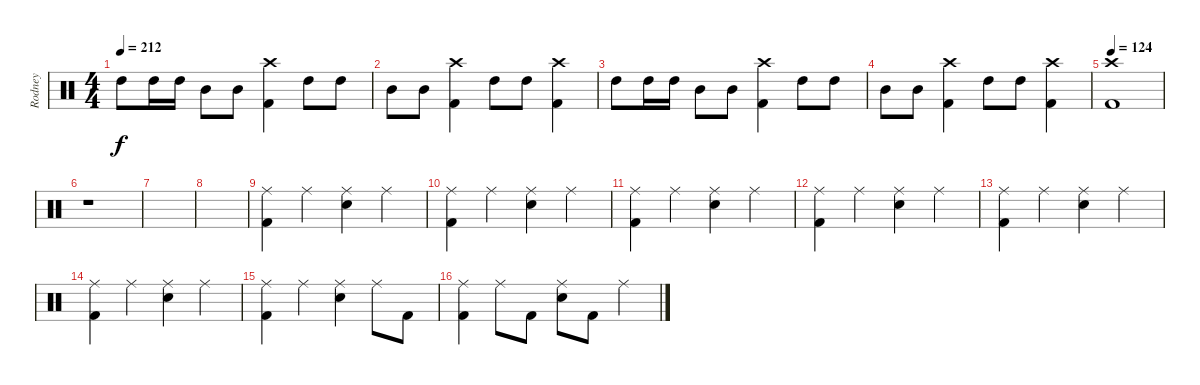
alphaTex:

\track ("Rodney" "Rodney") {instrument percussion}
\staff {score}
\articulation defaults
\ts (4 4)
\tempo 212
\clef neutral
\ks c "High Tom (hit)".8{dy f} "High Tom (hit)".16 "High Tom (hit)".16 "Mid Tom (hit)".8 "Mid Tom (hit)".8
("Crash high (hit)" "Kick (hit) 2").4 "High Tom (hit)".8 "High Tom (hit)".8 |
"Mid Tom (hit)".8 "Mid Tom (hit)".8 ("Crash high (hit)" "Kick (hit) 2").4 "High Tom (hit)".8 "High Tom (hit)".8 ("Crash high (hit)" "Kick (hit) 2").4 |
"High Tom (hit)".8 "High Tom (hit)".16 "High Tom (hit)".16 "Mid Tom (hit)".8 "Mid Tom (hit)".8 ("Crash high (hit)" "Kick (hit) 2").4 "High Tom (hit)".8 "High Tom (hit)".8 |
"Mid Tom (hit)".8 "Mid Tom (hit)".8 ("Crash high (hit)" "Kick (hit) 2").4 "High Tom (hit)".8 "High Tom (hit)".8 ("Crash high (hit)" "Kick (hit) 2").4 |
\tempo 124
("Crash high (hit)" "Kick (hit) 2").1 |
r.1 |
|
|
("Ride (middle)" "Kick (hit) 2").4 "Ride (middle)".4 ("Ride (middle)" "Snare (hit) 2").4 "Ride (middle)".4 |
("Ride (middle)" "Kick (hit) 2").4 "Ride (middle)".4 ("Ride (middle)" "Snare (hit) 2").4 "Ride (middle)".4 |
("Ride (middle)" "Kick (hit) 2").4 "Ride (middle)".4 ("Ride (middle)" "Snare (hit) 2").4 "Ride (middle)".4 |
("Ride (middle)" "Kick (hit) 2").4 "Ride (middle)".4 ("Ride (middle)" "Snare (hit) 2").4 "Ride (middle)".4 |
("Ride (middle)" "Kick (hit) 2").4 "Ride (middle)".4 ("Ride (middle)" "Snare (hit) 2").4 "Ride (middle)".4 |
("Ride (middle)" "Kick (hit) 2").4 "Ride (middle)".4 ("Ride (middle)" "Snare (hit) 2").4 "Ride (middle)".4 |
("Ride (middle)" "Kick (hit) 2").4 "Ride (middle)".4 ("Ride (middle)" "Snare (hit) 2").4 "Ride (middle)".8 "Kick (hit) 2".8 |
("Ride (middle)" "Kick (hit) 2").4 "Ride (middle)".8 "Kick (hit) 2".8 ("Ride (middle)" "Snare (hit) 2").8 "Kick (hit) 2".8 "Ride (middle)".4
